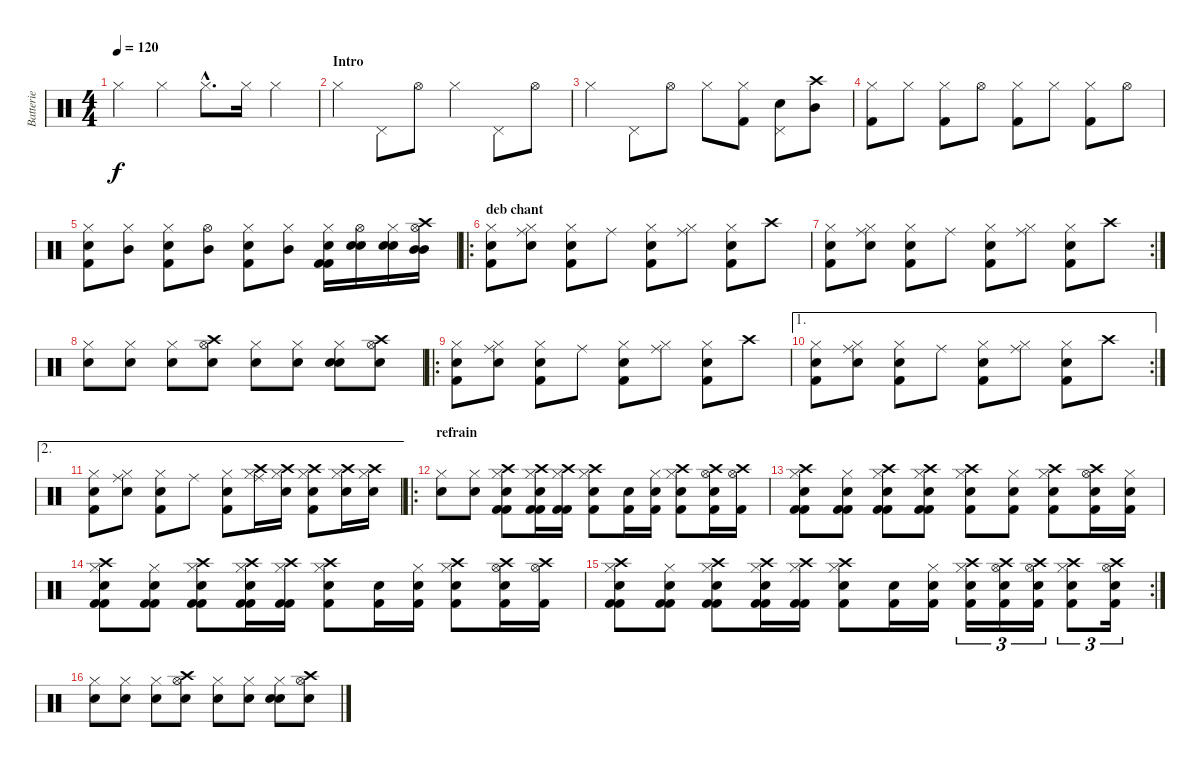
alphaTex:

\track ("Batterie" "Batterie") {instrument percussion}
\staff {score}
\articulation defaults
\ts (4 4)
\tempo 120
\clef neutral
\ks c "Hi-Hat (closed)".4{dy f} "Hi-Hat (closed)".4 "Hi-Hat (closed)"{hac}.8{d} "Hi-Hat (closed)".16 "Hi-Hat (closed)".4
|
\section ("" "Intro")
"Hi-Hat (closed)".4 "Pedal Hi-Hat (hit)".8 "Hi-Hat (open)".8 "Hi-Hat (closed)".4 "Pedal Hi-Hat (hit)".8 "Hi-Hat (open)".8 |
"Hi-Hat (closed)".4 "Pedal Hi-Hat (hit)".8 "Hi-Hat (open)".8 "Hi-Hat (closed)".8 ("Hi-Hat (closed)" "Kick (hit) 2").8 ("Pedal Hi-Hat (hit)" "Electric Snare (hit)").8 ("Crash high (hit)" "Mid Tom (hit)").8 |
("Hi-Hat (closed)" "Kick (hit) 2").8 "Hi-Hat (closed)".8 ("Hi-Hat (closed)" "Kick (hit) 2").8 "Hi-Hat (open)".8 ("Hi-Hat (closed)" "Kick (hit) 2").8 "Hi-Hat (closed)".8 ("Hi-Hat (closed)" "Kick (hit) 2").8 "Hi-Hat (open)".8 |
("Hi-Hat (closed)" "Kick (hit) 2" "Electric Snare (hit)").8 ("Hi-Hat (closed)" "Mid Tom (hit)").8 ("Hi-Hat (closed)" "Kick (hit) 2" "Electric Snare (hit)").8 ("Hi-Hat (open)" "Mid Tom (hit)").8 ("Hi-Hat (closed)" "Kick (hit) 2" "Electric Snare (hit)").8 ("Hi-Hat (closed)" "Mid Tom (hit)").8 ("Hi-Hat (closed)" "Kick (hit) 2" "Electric Snare (hit)" "Kick (hit) 2").16 ("Hi-Hat (open)" "Electric Snare (hit)" "Electric Snare (hit)").16 ("Hi-Hat (closed)" "Electric Snare (hit)" "Electric Snare (hit)").16 ("Hi-Hat (open)" "Mid Tom (hit)" "Mid Tom (hit)" "Crash high (hit)").16 |
\ro
\section ("" "deb chant")
("Hi-Hat (closed)" "Kick (hit) 2" "Snare (hit) 2").8 ("Hi-Hat (closed)" "Ride (middle)" "Snare (hit) 2").8 ("Hi-Hat (closed)" "Kick (hit) 2" "Snare (hit) 2").8 "Ride (middle)".8 ("Hi-Hat (closed)" "Kick (hit) 2" "Snare (hit) 2").8 ("Hi-Hat (closed)" "Ride (middle)").8 ("Hi-Hat (closed)" "Kick (hit) 2" "Snare (hit) 2").8 "Crash high (hit)".8 |
\rc 2
("Hi-Hat (closed)" "Kick (hit) 2" "Snare (hit) 2").8 ("Hi-Hat (closed)" "Ride (middle)" "Snare (hit) 2").8 ("Hi-Hat (closed)" "Kick (hit) 2" "Snare (hit) 2").8 "Ride (middle)".8 ("Hi-Hat (closed)" "Kick (hit) 2" "Snare (hit) 2").8 ("Hi-Hat (closed)" "Ride (middle)").8 ("Hi-Hat (closed)" "Kick (hit) 2" "Snare (hit) 2").8 "Crash high (hit)".8 |
("Hi-Hat (closed)" "Electric Snare (hit)").8 ("Hi-Hat (closed)" "Snare (hit) 2").8 ("Hi-Hat (closed)" "Electric Snare (hit)").8 ("Hi-Hat (open)" "Crash high (hit)" "Snare (hit) 2").8 ("Hi-Hat (closed)" "Electric Snare (hit)").8 ("Hi-Hat (closed)" "Snare (hit) 2").8 ("Hi-Hat (closed)" "Snare (hit) 2" "Electric Snare (hit)").8 ("Hi-Hat (open)" "Crash high (hit)" "Snare (hit) 2").8 |
\ro
("Hi-Hat (closed)" "Kick (hit) 2" "Snare (hit) 2").8 ("Hi-Hat (closed)" "Ride (middle)" "Snare (hit) 2").8 ("Hi-Hat (closed)" "Kick (hit) 2" "Snare (hit) 2").8 "Ride (middle)".8 ("Hi-Hat (closed)" "Kick (hit) 2" "Snare (hit) 2").8 ("Hi-Hat (closed)" "Ride (middle)").8 ("Hi-Hat (closed)" "Kick (hit) 2" "Snare (hit) 2").8 "Crash high (hit)".8 |
\ae 1
\rc 2
("Hi-Hat (closed)" "Kick (hit) 2" "Snare (hit) 2").8 ("Hi-Hat (closed)" "Ride (middle)" "Snare (hit) 2").8 ("Hi-Hat (closed)" "Kick (hit) 2" "Snare (hit) 2").8 "Ride (middle)".8 ("Hi-Hat (closed)" "Kick (hit) 2" "Snare (hit) 2").8 ("Hi-Hat (closed)" "Ride (middle)").8 ("Hi-Hat (closed)" "Kick (hit) 2" "Snare (hit) 2").8 "Crash high (hit)".8 |
\ae 2
("Hi-Hat (closed)" "Kick (hit) 2" "Snare (hit) 2").8 ("Hi-Hat (closed)" "Ride (middle)" "Snare (hit) 2").8 ("Hi-Hat (closed)" "Kick (hit) 2" "Snare (hit) 2").8 "Ride (middle)".8 ("Hi-Hat (closed)" "Kick (hit) 2" "Snare (hit) 2").8 ("Hi-Hat (closed)" "Ride (middle)" "Crash high (hit)").16 ("Hi-Hat (closed)" "Snare (hit) 2" "Crash high (hit)").16 ("Hi-Hat (closed)" "Kick (hit) 2" "Snare (hit) 2" "Crash high (hit)").8 ("Hi-Hat (closed)" "Snare (hit) 2" "Crash high (hit)").16 ("Hi-Hat (closed)" "Snare (hit) 2" "Crash high (hit)").16 |
\ro
\section ("" "refrain")
("Hi-Hat (closed)" "Snare (hit) 2").8 ("Hi-Hat (closed)" "Snare (hit) 2").8 ("Hi-Hat (closed)" "Crash high (hit)" "Snare (hit) 2" "Kick (hit) 2" "Kick (hit) 2").8 ("Hi-Hat (closed)" "Crash high (hit)" "Snare (hit) 2" "Kick (hit) 2" "Kick (hit) 2").16 ("Hi-Hat (closed)" "Crash high (hit)" "Kick (hit) 2" "Kick (hit) 2").16 ("Hi-Hat (closed)" "Crash high (hit)" "Snare (hit) 2" "Kick (hit) 2").8 ("Snare (hit) 2" "Kick (hit) 2").16 ("Hi-Hat (closed)" "Snare (hit) 2" "Kick (hit) 2").16 ("Hi-Hat (closed)" "Crash high (hit)" "Snare (hit) 2" "Kick (hit) 2").8 ("Hi-Hat (open)" "Crash high (hit)" "Snare (hit) 2" "Kick (hit) 2").16 ("Hi-Hat (open)" "Crash high (hit)" "Kick (hit) 2").16 |
("Hi-Hat (closed)" "Crash high (hit)" "Snare (hit) 2" "Kick (hit) 2" "Kick (hit) 2").8 ("Hi-Hat (closed)" "Snare (hit) 2" "Kick (hit) 2" "Kick (hit) 2").8 ("Hi-Hat (closed)" "Crash high (hit)" "Snare (hit) 2" "Kick (hit) 2" "Kick (hit) 2").8 ("Hi-Hat (closed)" "Crash high (hit)" "Snare (hit) 2" "Kick (hit) 2" "Kick (hit) 2").8 ("Hi-Hat (closed)" "Crash high (hit)" "Snare (hit) 2" "Kick (hit) 2").8 ("Hi-Hat (closed)" "Snare (hit) 2" "Kick (hit) 2").8 ("Hi-Hat (closed)" "Crash high (hit)" "Snare (hit) 2" "Kick (hit) 2").8 ("Hi-Hat (open)" "Crash high (hit)" "Snare (hit) 2" "Kick (hit) 2").16 ("Hi-Hat (closed)" "Snare (hit) 2" "Kick (hit) 2").16 |
("Hi-Hat (closed)" "Crash high (hit)" "Snare (hit) 2" "Kick (hit) 2" "Kick (hit) 2").8 ("Hi-Hat (closed)" "Snare (hit) 2" "Kick (hit) 2" "Kick (hit) 2").8 ("Hi-Hat (closed)" "Crash high (hit)" "Snare (hit) 2" "Kick (hit) 2" "Kick (hit) 2").8 ("Hi-Hat (closed)" "Crash high (hit)" "Snare (hit) 2" "Kick (hit) 2" "Kick (hit) 2").16 ("Hi-Hat (closed)" "Crash high (hit)" "Kick (hit) 2" "Kick (hit) 2").16 ("Hi-Hat (closed)" "Crash high (hit)" "Snare (hit) 2" "Kick (hit) 2").8 ("Snare (hit) 2" "Kick (hit) 2").16 ("Hi-Hat (closed)" "Snare (hit) 2" "Kick (hit) 2").16 ("Hi-Hat (closed)" "Crash high (hit)" "Snare (hit) 2" "Kick (hit) 2").8 ("Hi-Hat (open)" "Crash high (hit)" "Snare (hit) 2" "Kick (hit) 2").16 ("Hi-Hat (open)" "Crash high (hit)" "Kick (hit) 2").16 |
\rc 2
("Hi-Hat (closed)" "Crash high (hit)" "Snare (hit) 2" "Kick (hit) 2" "Kick (hit) 2").8 ("Hi-Hat (closed)" "Snare (hit) 2" "Kick (hit) 2" "Kick (hit) 2").8 ("Hi-Hat (closed)" "Crash high (hit)" "Snare (hit) 2" "Kick (hit) 2" "Kick (hit) 2").8 ("Hi-Hat (closed)" "Crash high (hit)" "Snare (hit) 2" "Kick (hit) 2" "Kick (hit) 2").16 ("Hi-Hat (closed)" "Crash high (hit)" "Kick (hit) 2" "Kick (hit) 2").16 ("Hi-Hat (closed)" "Crash high (hit)" "Snare (hit) 2" "Kick (hit) 2").8 ("Snare (hit) 2" "Kick (hit) 2").16 ("Hi-Hat (closed)" "Snare (hit) 2" "Kick (hit) 2").16 ("Hi-Hat (closed)" "Crash high (hit)" "Snare (hit) 2" "Kick (hit) 2").16{tu (3 2)} ("Hi-Hat (open)" "Crash high (hit)" "Snare (hit) 2" "Kick (hit) 2").16{tu (3 2)} ("Hi-Hat (open)" "Crash high (hit)" "Snare (hit) 2" "Kick (hit) 2").16{tu (3 2)} ("Hi-Hat (closed)" "Crash high (hit)" "Snare (hit) 2" "Kick (hit) 2").8{tu (3 2)} ("Hi-Hat (open)" "Crash high (hit)" "Snare (hit) 2" "Kick (hit) 2").16{tu (3 2)} |
("Hi-Hat (closed)" "Electric Snare (hit)").8 ("Hi-Hat (closed)" "Snare (hit) 2").8 ("Hi-Hat (closed)" "Electric Snare (hit)").8 ("Hi-Hat (open)" "Crash high (hit)" "Snare (hit) 2").8 ("Hi-Hat (closed)" "Electric Snare (hit)").8 ("Hi-Hat (closed)" "Snare (hit) 2").8 ("Hi-Hat (closed)" "Snare (hit) 2" "Electric Snare (hit)").8 ("Hi-Hat (open)" "Crash high (hit)" "Snare (hit) 2").8
